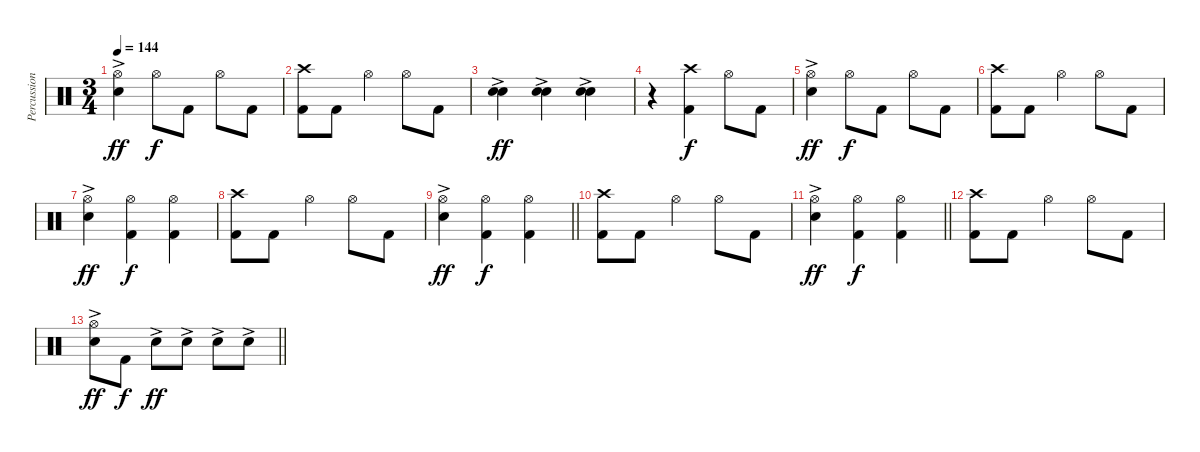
\track ("Percussion" "Percussion") {instrument percussion}
\staff {score}
\articulation defaults
\ts (3 4)
\tempo 144
\clef neutral
\ks c
("Hi-Hat (open)" "Electric Snare (hit)"{ac}).4{dy ff} "Hi-Hat (open)".8{dy f} "Kick (hit) 2".8 "Hi-Hat (open)".8 "Kick (hit) 2".8 |
("Crash high (hit)" "Kick (hit) 2").8 "Kick (hit) 2".8 "Hi-Hat (open)".4 "Hi-Hat (open)".8 "Kick (hit) 2".8 |
("Electric Snare (hit)"{ac} "Electric Snare (hit)").4{bu 120 dy ff} ("Electric Snare (hit)"{ac} "Electric Snare (hit)").4{bu 120} ("Electric Snare (hit)"{ac} "Electric Snare (hit)").4{bu 120} |
r.4 ("Crash high (hit)" "Kick (hit) 2").4{dy f} "Hi-Hat (open)".8 "Kick (hit) 2".8 |
("Hi-Hat (open)" "Electric Snare (hit)"{ac}).4{dy ff} "Hi-Hat (open)".8{dy f} "Kick (hit) 2".8 "Hi-Hat (open)".8 "Kick (hit) 2".8 |
("Crash high (hit)" "Kick (hit) 2").8 "Kick (hit) 2".8 "Hi-Hat (open)".4 "Hi-Hat (open)".8 "Kick (hit) 2".8 |
("Hi-Hat (open)" "Electric Snare (hit)"{ac}).4{dy ff} ("Hi-Hat (open)" "Kick (hit) 2").4{dy f} ("Hi-Hat (open)" "Kick (hit) 2").4 |
("Crash high (hit)" "Kick (hit) 2").8 "Kick (hit) 2".8 "Hi-Hat (open)".4 "Hi-Hat (open)".8 "Kick (hit) 2".8 |
\barLineRight lightlight
("Hi-Hat (open)" "Electric Snare (hit)"{ac}).4{dy ff} ("Hi-Hat (open)" "Kick (hit) 2").4{dy f} ("Hi-Hat (open)" "Kick (hit) 2").4 |
("Crash high (hit)" "Kick (hit) 2").8 "Kick (hit) 2".8 "Hi-Hat (open)".4 "Hi-Hat (open)".8 "Kick (hit) 2".8 |
\barLineRight lightlight
("Hi-Hat (open)" "Electric Snare (hit)"{ac}).4{dy ff} ("Hi-Hat (open)" "Kick (hit) 2").4{dy f} ("Hi-Hat (open)" "Kick (hit) 2").4 |
("Crash high (hit)" "Kick (hit) 2").8 "Kick (hit) 2".8 "Hi-Hat (open)".4 "Hi-Hat (open)".8 "Kick (hit) 2".8 |
\barLineRight lightlight
("Hi-Hat (open)" "Electric Snare (hit)"{ac}).8{dy ff} "Kick (hit) 2".8{dy f} "Electric Snare (hit)"{ac}.8{dy ff} "Electric Snare (hit)"{ac}.8 "Electric Snare (hit)"{ac}.8 "Electric Snare (hit)"{ac}.8
